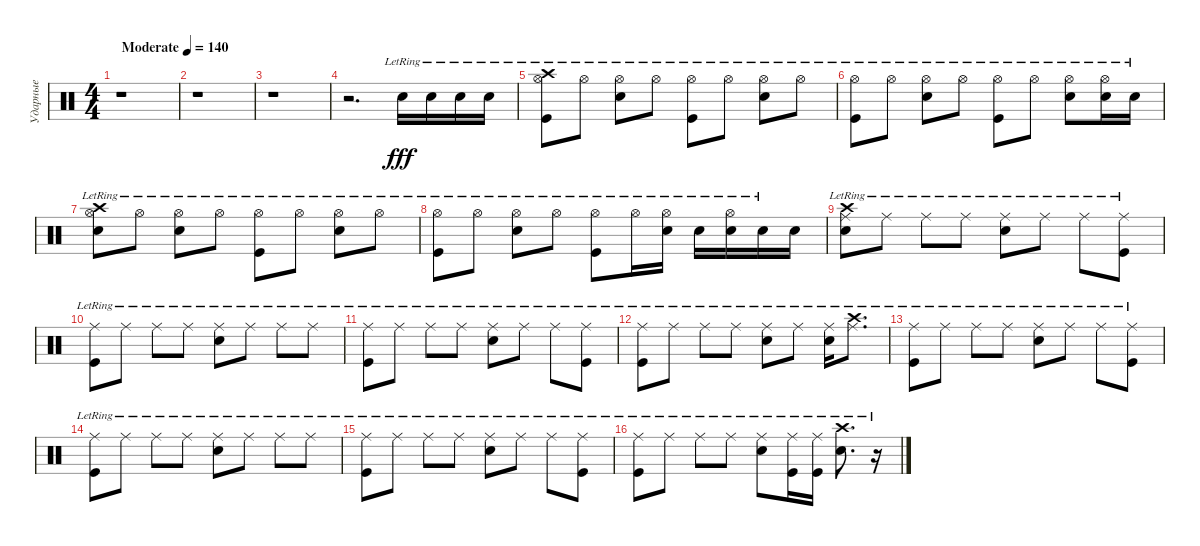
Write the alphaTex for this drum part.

\track ("Ударные" "Ударные") {instrument percussion}
\staff {score}
\articulation defaults
\ts (4 4)
\tempo (140 "Moderate")
\clef neutral
\ks c
r.1{dy fff} |
r.1 |
r.1 |
r.2{d} "Electric Snare (hit)"{lr}.16 "Electric Snare (hit)"{lr}.16 "Electric Snare (hit)"{lr}.16 "Electric Snare (hit)"{lr}.16 |
("Crash high (hit)"{lr} "Kick (hit)"{lr} "Hi-Hat (open)"{lr}).8 "Hi-Hat (open)"{lr}.8 ("Electric Snare (hit)"{lr} "Hi-Hat (open)"{lr}).8 "Hi-Hat (open)"{lr}.8 ("Kick (hit)"{lr} "Hi-Hat (open)"{lr}).8 "Hi-Hat (open)"{lr}.8 ("Electric Snare (hit)"{lr} "Hi-Hat (open)"{lr}).8 "Hi-Hat (open)"{lr}.8 |
("Kick (hit)"{lr} "Hi-Hat (open)"{lr}).8 "Hi-Hat (open)"{lr}.8 ("Electric Snare (hit)"{lr} "Hi-Hat (open)"{lr}).8 "Hi-Hat (open)"{lr}.8 ("Kick (hit)"{lr} "Hi-Hat (open)"{lr}).8 "Hi-Hat (open)"{lr}.8 ("Electric Snare (hit)"{lr} "Hi-Hat (open)"{lr}).8 ("Electric Snare (hit)"{lr} "Hi-Hat (open)"{lr}).16 "Electric Snare (hit)"{lr}.16 |
("Crash high (hit)"{lr} "Electric Snare (hit)"{lr} "Hi-Hat (open)"{lr}).8 "Hi-Hat (open)"{lr}.8 ("Electric Snare (hit)"{lr} "Hi-Hat (open)"{lr}).8 "Hi-Hat (open)"{lr}.8 ("Kick (hit)"{lr} "Hi-Hat (open)"{lr}).8 "Hi-Hat (open)"{lr}.8 ("Electric Snare (hit)"{lr} "Hi-Hat (open)"{lr}).8 "Hi-Hat (open)"{lr}.8 |
("Kick (hit)"{lr} "Hi-Hat (open)"{lr}).8 "Hi-Hat (open)"{lr}.8 ("Electric Snare (hit)"{lr} "Hi-Hat (open)"{lr}).8 "Hi-Hat (open)"{lr}.8 ("Kick (hit)"{lr} "Hi-Hat (open)"{lr}).8 "Hi-Hat (open)"{lr}.16 ("Electric Snare (hit)"{lr} "Hi-Hat (open)"{lr}).16 "Electric Snare (hit)"{lr}.16 ("Electric Snare (hit)"{lr} "Hi-Hat (open)"{lr}).16 "Electric Snare (hit)"{lr}.16 "Electric Snare (hit)".16 |
("Ride (middle)"{lr} "Electric Snare (hit)"{lr} "Crash high (hit)").8 "Ride (middle)"{lr}.8 "Ride (middle)"{lr}.8 "Ride (middle)"{lr}.8 ("Ride (middle)"{lr} "Electric Snare (hit)"{lr}).8 "Ride (middle)"{lr}.8 "Ride (middle)"{lr}.8 ("Ride (middle)"{lr} "Kick (hit)"{lr}).8 |
("Ride (middle)"{lr} "Kick (hit)"{lr}).8 "Ride (middle)"{lr}.8 "Ride (middle)"{lr}.8 "Ride (middle)"{lr}.8 ("Ride (middle)"{lr} "Electric Snare (hit)"{lr}).8 "Ride (middle)"{lr}.8 "Ride (middle)"{lr}.8 "Ride (middle)"{lr}.8 |
("Ride (middle)"{lr} "Kick (hit)"{lr}).8 "Ride (middle)"{lr}.8 "Ride (middle)"{lr}.8 "Ride (middle)"{lr}.8 ("Ride (middle)"{lr} "Electric Snare (hit)"{lr}).8 "Ride (middle)"{lr}.8 "Ride (middle)"{lr}.8 ("Ride (middle)"{lr} "Kick (hit)"{lr}).8 |
("Ride (middle)"{lr} "Kick (hit)"{lr}).8 "Ride (middle)"{lr}.8 "Ride (middle)"{lr}.8 "Ride (middle)"{lr}.8 ("Ride (middle)"{lr} "Electric Snare (hit)"{lr}).8 "Ride (middle)"{lr}.8 ("Ride (middle)"{lr} "Electric Snare (hit)"{lr}).16 ("Crash high (hit)"{lr} "Ride (middle)"{lr}).8{d} |
("Ride (middle)"{lr} "Kick (hit)"{lr}).8 "Ride (middle)"{lr}.8 "Ride (middle)"{lr}.8 "Ride (middle)"{lr}.8 ("Ride (middle)"{lr} "Electric Snare (hit)"{lr}).8 "Ride (middle)"{lr}.8 "Ride (middle)"{lr}.8 ("Ride (middle)"{lr} "Kick (hit)"{lr}).8 |
("Ride (middle)"{lr} "Kick (hit)"{lr}).8 "Ride (middle)"{lr}.8 "Ride (middle)"{lr}.8 "Ride (middle)"{lr}.8 ("Ride (middle)"{lr} "Electric Snare (hit)"{lr}).8 "Ride (middle)"{lr}.8 "Ride (middle)"{lr}.8 "Ride (middle)"{lr}.8 |
("Ride (middle)"{lr} "Kick (hit)"{lr}).8 "Ride (middle)"{lr}.8 "Ride (middle)"{lr}.8 "Ride (middle)"{lr}.8 ("Ride (middle)"{lr} "Electric Snare (hit)"{lr}).8 "Ride (middle)"{lr}.8 "Ride (middle)"{lr}.8 ("Ride (middle)"{lr} "Kick (hit)"{lr}).8 |
("Ride (middle)"{lr} "Kick (hit)"{lr}).8 "Ride (middle)"{lr}.8 "Ride (middle)"{lr}.8 "Ride (middle)"{lr}.8 ("Ride (middle)"{lr} "Electric Snare (hit)"{lr}).8 ("Ride (middle)"{lr} "Kick (hit)").16 ("Ride (middle)"{lr} "Kick (hit)"{lr}).16 ("Crash high (hit)"{lr} "Electric Snare (hit)").8{d} r.16
